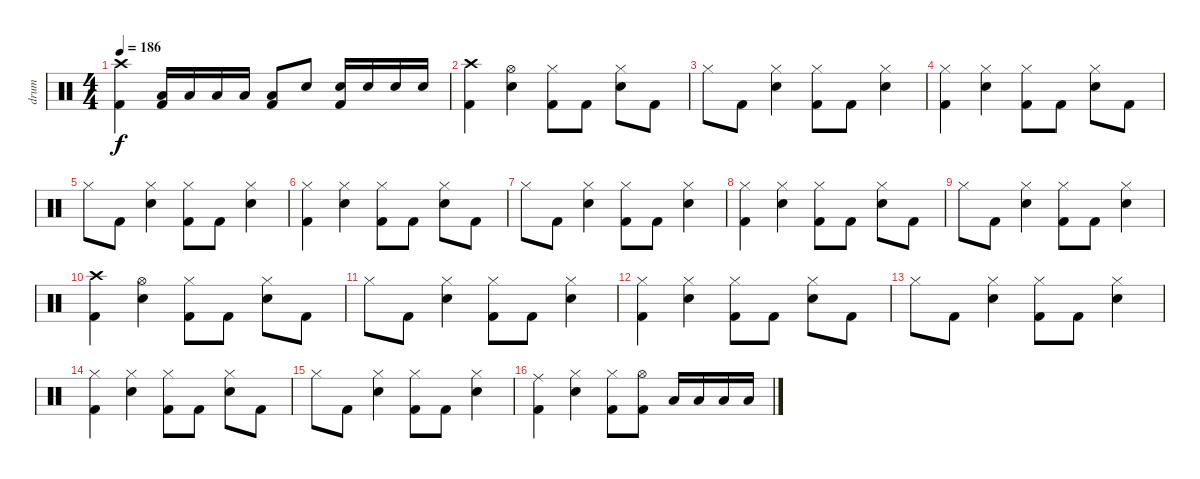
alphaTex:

\track ("drum" "drum") {instrument percussion}
\staff {score}
\articulation defaults
\ts (4 4)
\tempo 186
\clef neutral
\ks c
("Crash high (hit)" "Kick (hit) 2").4{dy f} ("Low Floor Tom (hit)" "Kick (hit) 2").16 "Low Floor Tom (hit)".16 "Low Floor Tom (hit)".16 "Low Floor Tom (hit)".16 ("Low Floor Tom (hit)" "Kick (hit) 2").8 "Snare (hit) 2".8 ("Snare (hit) 2" "Kick (hit) 2").16 "Snare (hit) 2".16 "Snare (hit) 2".16 "Snare (hit) 2".16 |
("Crash high (hit)" "Kick (hit) 2").4 ("Hi-Hat (open)" "Snare (hit) 2").4 ("Hi-Hat (closed)" "Kick (hit) 2").8 "Kick (hit) 2".8 ("Hi-Hat (closed)" "Snare (hit) 2").8 "Kick (hit) 2".8 |
"Hi-Hat (closed)".8 "Kick (hit) 2".8 ("Hi-Hat (closed)" "Snare (hit) 2").4 ("Hi-Hat (closed)" "Kick (hit) 2").8 "Kick (hit) 2".8 ("Hi-Hat (closed)" "Snare (hit) 2").4 |
("Hi-Hat (closed)" "Kick (hit) 2").4 ("Hi-Hat (closed)" "Snare (hit) 2").4 ("Hi-Hat (closed)" "Kick (hit) 2").8 "Kick (hit) 2".8 ("Hi-Hat (closed)" "Snare (hit) 2").8 "Kick (hit) 2".8 |
"Hi-Hat (closed)".8 "Kick (hit) 2".8 ("Hi-Hat (closed)" "Snare (hit) 2").4 ("Hi-Hat (closed)" "Kick (hit) 2").8 "Kick (hit) 2".8 ("Hi-Hat (closed)" "Snare (hit) 2").4 |
("Hi-Hat (closed)" "Kick (hit) 2").4 ("Hi-Hat (closed)" "Snare (hit) 2").4 ("Hi-Hat (closed)" "Kick (hit) 2").8 "Kick (hit) 2".8 ("Hi-Hat (closed)" "Snare (hit) 2").8 "Kick (hit) 2".8 |
"Hi-Hat (closed)".8 "Kick (hit) 2".8 ("Hi-Hat (closed)" "Snare (hit) 2").4 ("Hi-Hat (closed)" "Kick (hit) 2").8 "Kick (hit) 2".8 ("Hi-Hat (closed)" "Snare (hit) 2").4 |
("Hi-Hat (closed)" "Kick (hit) 2").4 ("Hi-Hat (closed)" "Snare (hit) 2").4 ("Hi-Hat (closed)" "Kick (hit) 2").8 "Kick (hit) 2".8 ("Hi-Hat (closed)" "Snare (hit) 2").8 "Kick (hit) 2".8 |
"Hi-Hat (closed)".8 "Kick (hit) 2".8 ("Hi-Hat (closed)" "Snare (hit) 2").4 ("Hi-Hat (closed)" "Kick (hit) 2").8 "Kick (hit) 2".8 ("Hi-Hat (closed)" "Snare (hit) 2").4 |
("Crash high (hit)" "Kick (hit) 2").4 ("Hi-Hat (open)" "Snare (hit) 2").4 ("Hi-Hat (closed)" "Kick (hit) 2").8 "Kick (hit) 2".8 ("Hi-Hat (closed)" "Snare (hit) 2").8 "Kick (hit) 2".8 |
"Hi-Hat (closed)".8 "Kick (hit) 2".8 ("Hi-Hat (closed)" "Snare (hit) 2").4 ("Hi-Hat (closed)" "Kick (hit) 2").8 "Kick (hit) 2".8 ("Hi-Hat (closed)" "Snare (hit) 2").4 |
("Hi-Hat (closed)" "Kick (hit) 2").4 ("Hi-Hat (closed)" "Snare (hit) 2").4 ("Hi-Hat (closed)" "Kick (hit) 2").8 "Kick (hit) 2".8 ("Hi-Hat (closed)" "Snare (hit) 2").8 "Kick (hit) 2".8 |
"Hi-Hat (closed)".8 "Kick (hit) 2".8 ("Hi-Hat (closed)" "Snare (hit) 2").4 ("Hi-Hat (closed)" "Kick (hit) 2").8 "Kick (hit) 2".8 ("Hi-Hat (closed)" "Snare (hit) 2").4 |
("Hi-Hat (closed)" "Kick (hit) 2").4 ("Hi-Hat (closed)" "Snare (hit) 2").4 ("Hi-Hat (closed)" "Kick (hit) 2").8 "Kick (hit) 2".8 ("Hi-Hat (closed)" "Snare (hit) 2").8 "Kick (hit) 2".8 |
"Hi-Hat (closed)".8 "Kick (hit) 2".8 ("Hi-Hat (closed)" "Snare (hit) 2").4 ("Hi-Hat (closed)" "Kick (hit) 2").8 "Kick (hit) 2".8 ("Hi-Hat (closed)" "Snare (hit) 2").4 |
("Ride (middle)" "Kick (hit) 2").4 ("Hi-Hat (closed)" "Snare (hit) 2").4 ("Hi-Hat (closed)" "Kick (hit) 2").8 ("Hi-Hat (open)" "Kick (hit) 2").8 "Low Floor Tom (hit)".16 "Low Floor Tom (hit)".16 "Low Floor Tom (hit)".16 "Low Floor Tom (hit)".16
